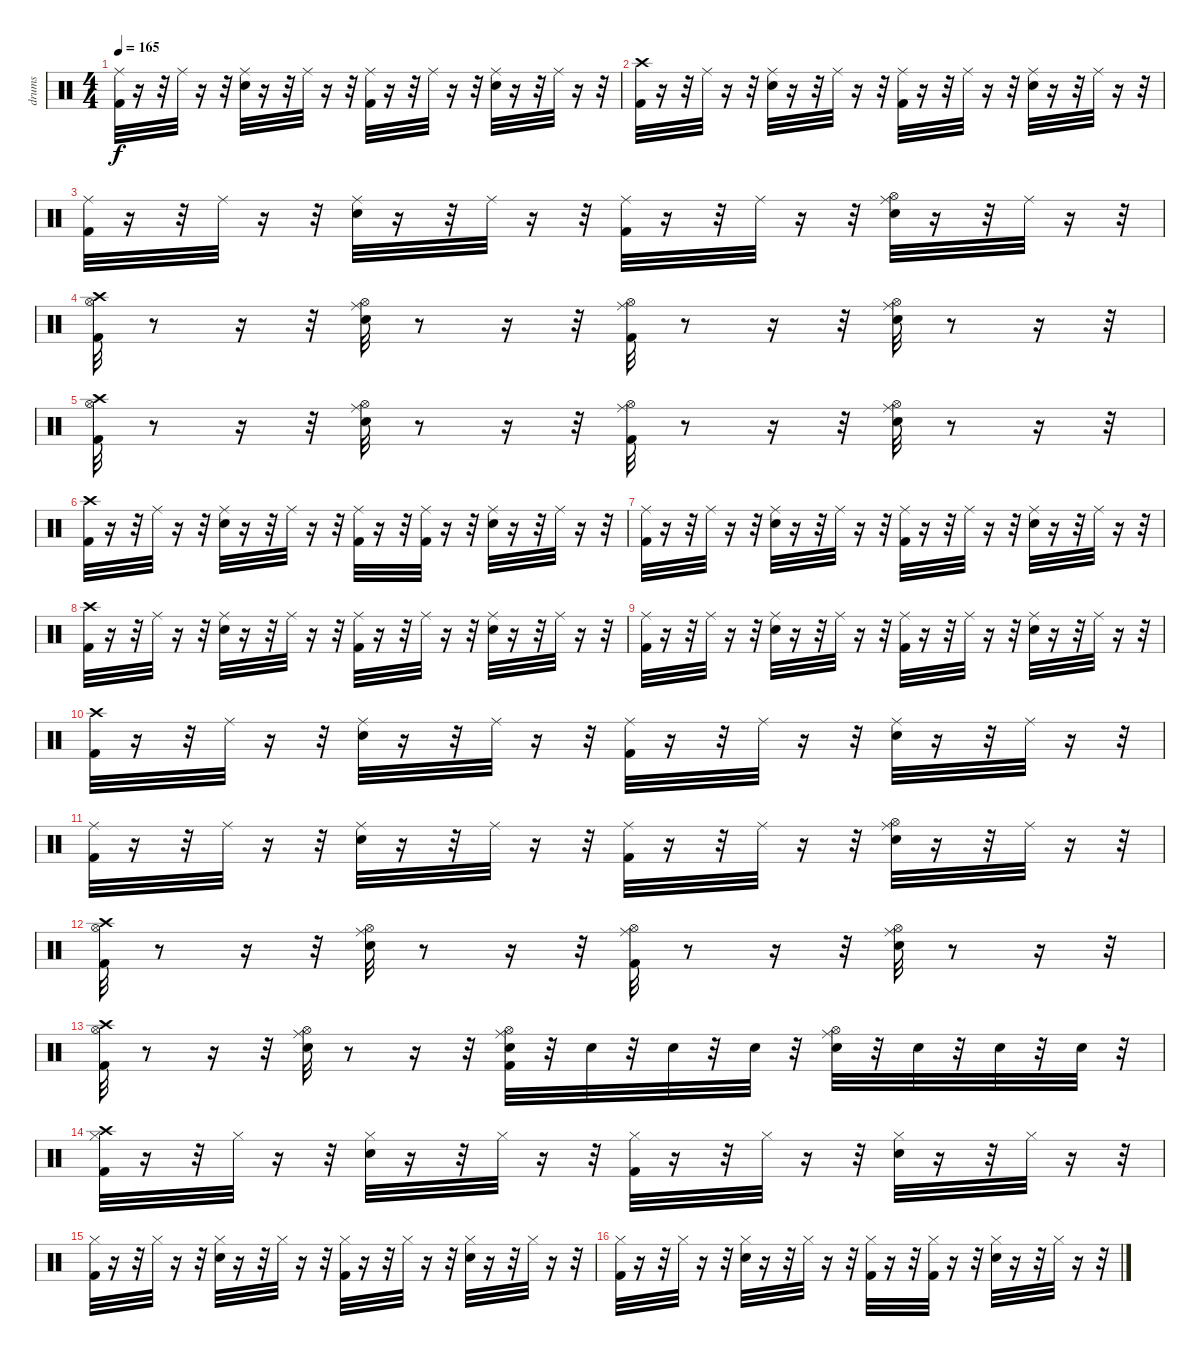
\track ("drums" "drums") {instrument percussion}
\staff {score}
\articulation defaults
\ts (4 4)
\tempo 165
\clef neutral
\ks c
("Ride (middle)" "Kick (hit) 2").32{dy f} r.16 r.32 "Ride (middle)".32 r.16 r.32 ("Ride (middle)" "Electric Snare (hit)").32 r.16 r.32 "Ride (middle)".32 r.16 r.32 ("Ride (middle)" "Kick (hit) 2").32 r.16 r.32 "Ride (middle)".32 r.16 r.32 ("Ride (middle)" "Electric Snare (hit)").32 r.16 r.32 "Ride (middle)".32 r.16 r.32 |
("Crash high (hit)" "Kick (hit) 2").32 r.16 r.32 "Ride (middle)".32 r.16 r.32 ("Ride (middle)" "Electric Snare (hit)").32 r.16 r.32 "Ride (middle)".32 r.16 r.32 ("Ride (middle)" "Kick (hit) 2").32 r.16 r.32 "Ride (middle)".32 r.16 r.32 ("Ride (middle)" "Electric Snare (hit)").32 r.16 r.32 "Ride (middle)".32 r.16 r.32 |
("Ride (middle)" "Kick (hit) 2").32 r.16 r.32 "Ride (middle)".32 r.16 r.32 ("Ride (middle)" "Electric Snare (hit)").32 r.16 r.32 "Ride (middle)".32 r.16 r.32 ("Ride (middle)" "Kick (hit) 2").32 r.16 r.32 "Ride (middle)".32 r.16 r.32 ("Ride (middle)" "Electric Snare (hit)" "Hi-Hat (open)").32 r.16 r.32 "Ride (middle)".32 r.16 r.32 |
("Crash high (hit)" "Kick (hit) 2" "Hi-Hat (open)").32 r.8 r.16 r.32 ("Ride (middle)" "Electric Snare (hit)" "Hi-Hat (open)").32 r.8 r.16 r.32 ("Ride (middle)" "Kick (hit) 2" "Hi-Hat (open)").32 r.8 r.16 r.32 ("Ride (middle)" "Electric Snare (hit)" "Hi-Hat (open)").32 r.8 r.16 r.32 |
("Crash high (hit)" "Kick (hit) 2" "Hi-Hat (open)").32 r.8 r.16 r.32 ("Ride (middle)" "Electric Snare (hit)" "Hi-Hat (open)").32 r.8 r.16 r.32 ("Ride (middle)" "Kick (hit) 2" "Hi-Hat (open)").32 r.8 r.16 r.32 ("Ride (middle)" "Electric Snare (hit)" "Hi-Hat (open)").32 r.8 r.16 r.32 |
("Crash high (hit)" "Kick (hit) 2").32 r.16 r.32 "Ride (middle)".32 r.16 r.32 ("Ride (middle)" "Electric Snare (hit)").32 r.16 r.32 "Ride (middle)".32 r.16 r.32 ("Ride (middle)" "Kick (hit) 2").32 r.16 r.32 ("Ride (middle)" "Kick (hit) 2").32 r.16 r.32 ("Ride (middle)" "Electric Snare (hit)").32 r.16 r.32 "Ride (middle)".32 r.16 r.32 |
("Ride (middle)" "Kick (hit) 2").32 r.16 r.32 "Ride (middle)".32 r.16 r.32 ("Ride (middle)" "Electric Snare (hit)").32 r.16 r.32 "Ride (middle)".32 r.16 r.32 ("Ride (middle)" "Kick (hit) 2").32 r.16 r.32 "Ride (middle)".32 r.16 r.32 ("Ride (middle)" "Electric Snare (hit)").32 r.16 r.32 "Ride (middle)".32 r.16 r.32 |
("Crash high (hit)" "Kick (hit) 2").32 r.16 r.32 "Ride (middle)".32 r.16 r.32 ("Ride (middle)" "Electric Snare (hit)").32 r.16 r.32 "Ride (middle)".32 r.16 r.32 ("Ride (middle)" "Kick (hit) 2").32 r.16 r.32 "Ride (middle)".32 r.16 r.32 ("Ride (middle)" "Electric Snare (hit)").32 r.16 r.32 "Ride (middle)".32 r.16 r.32 |
("Ride (middle)" "Kick (hit) 2").32 r.16 r.32 "Ride (middle)".32 r.16 r.32 ("Ride (middle)" "Electric Snare (hit)").32 r.16 r.32 "Ride (middle)".32 r.16 r.32 ("Ride (middle)" "Kick (hit) 2").32 r.16 r.32 "Ride (middle)".32 r.16 r.32 ("Ride (middle)" "Electric Snare (hit)").32 r.16 r.32 "Ride (middle)".32 r.16 r.32 |
("Crash high (hit)" "Kick (hit) 2").32 r.16 r.32 "Ride (middle)".32 r.16 r.32 ("Ride (middle)" "Electric Snare (hit)").32 r.16 r.32 "Ride (middle)".32 r.16 r.32 ("Ride (middle)" "Kick (hit) 2").32 r.16 r.32 "Ride (middle)".32 r.16 r.32 ("Ride (middle)" "Electric Snare (hit)").32 r.16 r.32 "Ride (middle)".32 r.16 r.32 |
("Ride (middle)" "Kick (hit) 2").32 r.16 r.32 "Ride (middle)".32 r.16 r.32 ("Ride (middle)" "Electric Snare (hit)").32 r.16 r.32 "Ride (middle)".32 r.16 r.32 ("Ride (middle)" "Kick (hit) 2").32 r.16 r.32 "Ride (middle)".32 r.16 r.32 ("Ride (middle)" "Electric Snare (hit)" "Hi-Hat (open)").32 r.16 r.32 "Ride (middle)".32 r.16 r.32 |
("Crash high (hit)" "Kick (hit) 2" "Hi-Hat (open)").32 r.8 r.16 r.32 ("Ride (middle)" "Electric Snare (hit)" "Hi-Hat (open)").32 r.8 r.16 r.32 ("Ride (middle)" "Kick (hit) 2" "Hi-Hat (open)").32 r.8 r.16 r.32 ("Ride (middle)" "Electric Snare (hit)" "Hi-Hat (open)").32 r.8 r.16 r.32 |
("Crash high (hit)" "Kick (hit) 2" "Hi-Hat (open)").32 r.8 r.16 r.32 ("Ride (middle)" "Electric Snare (hit)" "Hi-Hat (open)").32 r.8 r.16 r.32 ("Electric Snare (hit)" "Ride (middle)" "Kick (hit) 2" "Hi-Hat (open)").32 r.32 "Electric Snare (hit)".32 r.32 "Electric Snare (hit)".32 r.32 "Electric Snare (hit)".32 r.32 ("Ride (middle)" "Electric Snare (hit)" "Hi-Hat (open)").32 r.32 "Electric Snare (hit)".32 r.32 "Electric Snare (hit)".32 r.32 "Electric Snare (hit)".32 r.32 |
("Kick (hit) 2" "Hi-Hat (closed)" "Crash high (hit)").32 r.16 r.32 "Hi-Hat (closed)".32 r.16 r.32 ("Hi-Hat (closed)" "Electric Snare (hit)").32 r.16 r.32 "Hi-Hat (closed)".32 r.16 r.32 ("Hi-Hat (closed)" "Kick (hit) 2").32 r.16 r.32 "Hi-Hat (closed)".32 r.16 r.32 ("Hi-Hat (closed)" "Electric Snare (hit)").32 r.16 r.32 "Hi-Hat (closed)".32 r.16 r.32 |
("Hi-Hat (closed)" "Kick (hit) 2").32 r.16 r.32 "Hi-Hat (closed)".32 r.16 r.32 ("Hi-Hat (closed)" "Electric Snare (hit)").32 r.16 r.32 "Hi-Hat (closed)".32 r.16 r.32 ("Hi-Hat (closed)" "Kick (hit) 2").32 r.16 r.32 "Hi-Hat (closed)".32 r.16 r.32 ("Hi-Hat (closed)" "Electric Snare (hit)").32 r.16 r.32 "Hi-Hat (closed)".32 r.16 r.32 |
("Hi-Hat (closed)" "Kick (hit) 2").32 r.16 r.32 "Hi-Hat (closed)".32 r.16 r.32 ("Hi-Hat (closed)" "Electric Snare (hit)").32 r.16 r.32 "Hi-Hat (closed)".32 r.16 r.32 ("Hi-Hat (closed)" "Kick (hit) 2").32 r.16 r.32 ("Hi-Hat (closed)" "Kick (hit) 2").32 r.16 r.32 ("Hi-Hat (closed)" "Electric Snare (hit)").32 r.16 r.32 "Hi-Hat (closed)".32 r.16 r.32
